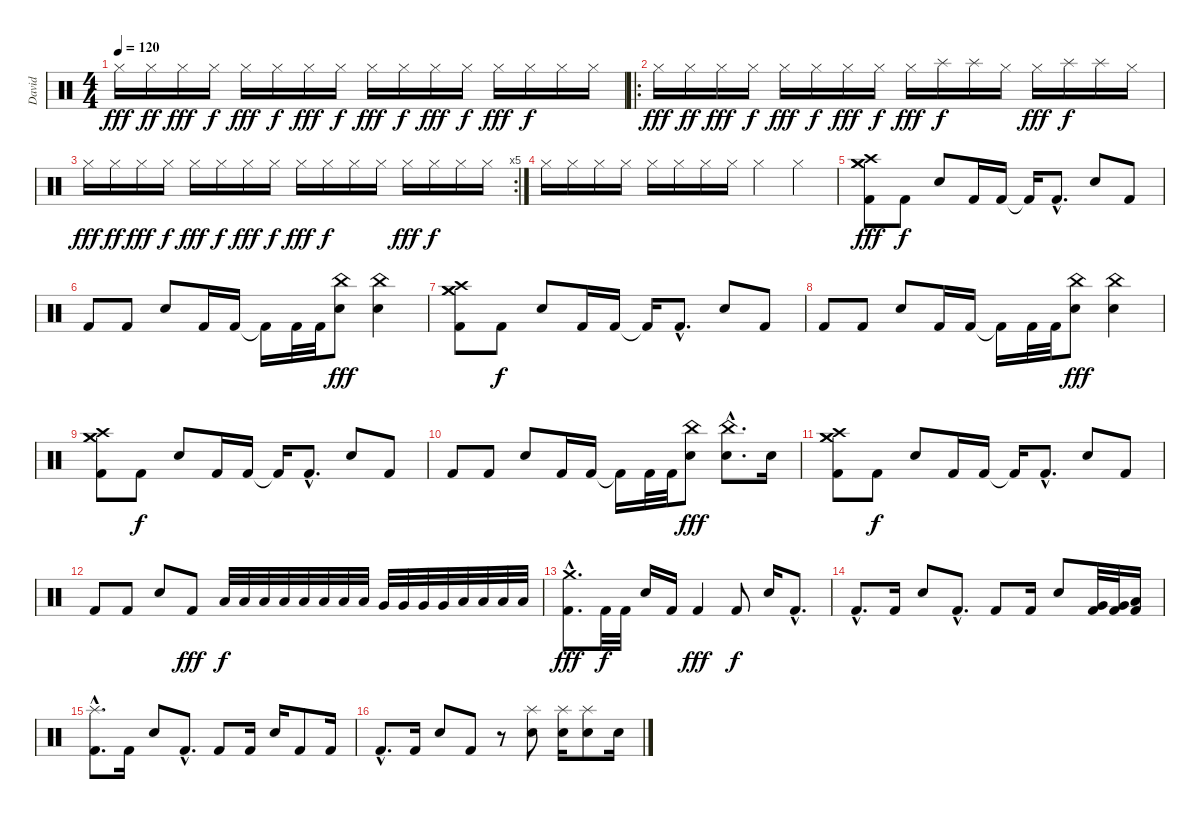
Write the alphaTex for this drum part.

\track ("David " "David ") {instrument percussion}
\staff {score}
\articulation defaults
\ts (4 4)
\tempo 120
\clef neutral
\ks c "Hi-Hat (closed)".16{dy fff} "Hi-Hat (closed)".16{dy ff} "Hi-Hat (closed)".16{dy fff} "Hi-Hat (closed)".16{dy f} "Hi-Hat (closed)".16{dy fff} "Hi-Hat (closed)".16{dy f} "Hi-Hat (closed)".16{dy fff} "Hi-Hat (closed)".16{dy f} "Hi-Hat (closed)".16{dy fff} "Hi-Hat (closed)".16{dy f} "Hi-Hat (closed)".16{dy fff} "Hi-Hat (closed)".16{dy f} "Hi-Hat (closed)".16{dy fff} "Hi-Hat (closed)".16{dy f} "Hi-Hat (closed)".16 "Hi-Hat (closed)".16
|
\ro "Hi-Hat (closed)".16{dy fff} "Hi-Hat (closed)".16{dy ff} "Hi-Hat (closed)".16{dy fff} "Hi-Hat (closed)".16{dy f} "Hi-Hat (closed)".16{dy fff} "Hi-Hat (closed)".16{dy f} "Hi-Hat (closed)".16{dy fff} "Hi-Hat (closed)".16{dy f} "Hi-Hat (closed)".16{dy fff} "Splash (hit)".16{dy f} "Splash (hit)".16 "Hi-Hat (closed)".16 "Hi-Hat (closed)".16{dy fff} "Splash (hit)".16{dy f} "Splash (hit)".16 "Hi-Hat (closed)".16
|
\rc 5 "Hi-Hat (closed)".16{dy fff} "Hi-Hat (closed)".16{dy ff} "Hi-Hat (closed)".16{dy fff} "Hi-Hat (closed)".16{dy f} "Hi-Hat (closed)".16{dy fff} "Hi-Hat (closed)".16{dy f} "Hi-Hat (closed)".16{dy fff} "Hi-Hat (closed)".16{dy f} "Hi-Hat (closed)".16{dy fff} "Hi-Hat (closed)".16{dy f} "Hi-Hat (closed)".16 "Hi-Hat (closed)".16 "Hi-Hat (closed)".16{dy fff} "Hi-Hat (closed)".16{dy f} "Hi-Hat (closed)".16 "Hi-Hat (closed)".16
|
"Hi-Hat (closed)".16 "Hi-Hat (closed)".16 "Hi-Hat (closed)".16 "Hi-Hat (closed)".16 "Hi-Hat (closed)".16 "Hi-Hat (closed)".16 "Hi-Hat (closed)".16 "Hi-Hat (closed)".16 "Hi-Hat (closed)".4 "Hi-Hat (closed)".4 |
("Crash medium (hit)" "Crash high (hit)" "Crash medium (hit)" "Kick (hit) 2").8{dy fff} "Kick (hit) 2".8{dy f} "Snare (hit) 2".8 "Kick (hit) 2".16 "Kick (hit) 2".16 "Kick (hit) 2"{t}.16 "Kick (hit) 2"{hac}.8{d} "Snare (hit) 2".8 "Kick (hit) 2".8 |
"Kick (hit) 2".8 "Kick (hit) 2".8 "Snare (hit) 2".8 "Kick (hit) 2".16 "Kick (hit) 2".16 "Kick (hit) 2"{t}.16 "Kick (hit) 2".32 "Kick (hit) 2".32 ("China (hit)" "Snare (hit) 2").8{dy fff} ("China (hit)" "Snare (hit) 2").4 |
("Crash medium (hit)" "Crash high (hit)" "Crash medium (hit)" "Kick (hit) 2").8 "Kick (hit) 2".8{dy f} "Snare (hit) 2".8 "Kick (hit) 2".16 "Kick (hit) 2".16 "Kick (hit) 2"{t}.16 "Kick (hit) 2"{hac}.8{d} "Snare (hit) 2".8 "Kick (hit) 2".8 |
"Kick (hit) 2".8 "Kick (hit) 2".8 "Snare (hit) 2".8 "Kick (hit) 2".16 "Kick (hit) 2".16 "Kick (hit) 2"{t}.16 "Kick (hit) 2".32 "Kick (hit) 2".32 ("China (hit)" "Snare (hit) 2").8{dy fff} ("China (hit)" "Snare (hit) 2").4 |
("Crash medium (hit)" "Crash high (hit)" "Crash medium (hit)" "Kick (hit) 2").8 "Kick (hit) 2".8{dy f} "Snare (hit) 2".8 "Kick (hit) 2".16 "Kick (hit) 2".16 "Kick (hit) 2"{t}.16 "Kick (hit) 2"{hac}.8{d} "Snare (hit) 2".8 "Kick (hit) 2".8 |
"Kick (hit) 2".8 "Kick (hit) 2".8 "Snare (hit) 2".8 "Kick (hit) 2".16 "Kick (hit) 2".16 "Kick (hit) 2"{t}.16 "Kick (hit) 2".32 "Kick (hit) 2".32 ("China (hit)" "Snare (hit) 2").8{dy fff} ("China (hit)"{hac} "Snare (hit) 2"{hac}).8{d} "Snare (hit) 2".16 |
("Crash medium (hit)" "Crash high (hit)" "Crash medium (hit)" "Kick (hit) 2").8 "Kick (hit) 2".8{dy f} "Snare (hit) 2".8 "Kick (hit) 2".16 "Kick (hit) 2".16 "Kick (hit) 2"{t}.16 "Kick (hit) 2"{hac}.8{d} "Snare (hit) 2".8 "Kick (hit) 2".8 |
"Kick (hit) 2".8 "Kick (hit) 2".8 "Snare (hit) 2".8 "Kick (hit) 2".8{dy fff} "Low Tom (hit)".32{dy f} "Low Tom (hit)".32 "Low Tom (hit)".32 "Low Tom (hit)".32 "Low Tom (hit)".32 "Low Tom (hit)".32 "Low Tom (hit)".32 "Low Tom (hit)".32 "Very Low Tom (hit)".32 "Very Low Tom (hit)".32 "Very Low Tom (hit)".32 "Very Low Tom (hit)".32 "Low Floor Tom (hit)".32 "Low Floor Tom (hit)".32 "Low Floor Tom (hit)".32 "Low Floor Tom (hit)".32 |
("Crash medium (hit)"{hac} "Kick (hit) 2"{hac}).8{d dy fff} "Kick (hit) 2".32{dy f} "Kick (hit) 2".32 "Snare (hit) 2".16 "Kick (hit) 2".16 "Kick (hit) 2".4{dy fff} "Kick (hit) 2".8{dy f} "Snare (hit) 2".16 "Kick (hit) 2"{hac}.8{d} |
"Kick (hit) 2"{hac}.8{d} "Kick (hit) 2".16 "Snare (hit) 2".8 "Kick (hit) 2"{hac}.8{d} "Kick (hit) 2".8 "Kick (hit) 2".16 "Snare (hit) 2".8 ("Very Low Tom (hit)" "Kick (hit) 2").32 ("Very Low Tom (hit)" "Kick (hit) 2").32 ("Low Floor Tom (hit)" "Kick (hit) 2").16 |
("Splash (hit)"{hac} "Kick (hit) 2"{hac}).8{d} "Kick (hit) 2".16 "Snare (hit) 2".8 "Kick (hit) 2"{hac}.8{d} "Kick (hit) 2".8 "Kick (hit) 2".16 "Snare (hit) 2".16 "Kick (hit) 2".8 "Kick (hit) 2".16 |
"Kick (hit) 2"{hac}.8{d} "Kick (hit) 2".16 "Snare (hit) 2".8 "Kick (hit) 2".8 r.8 ("Splash (hit)" "Snare (hit) 2").8 ("Splash (hit)" "Snare (hit) 2").16 ("Splash (hit)" "Snare (hit) 2").8 "Snare (hit) 2".16
